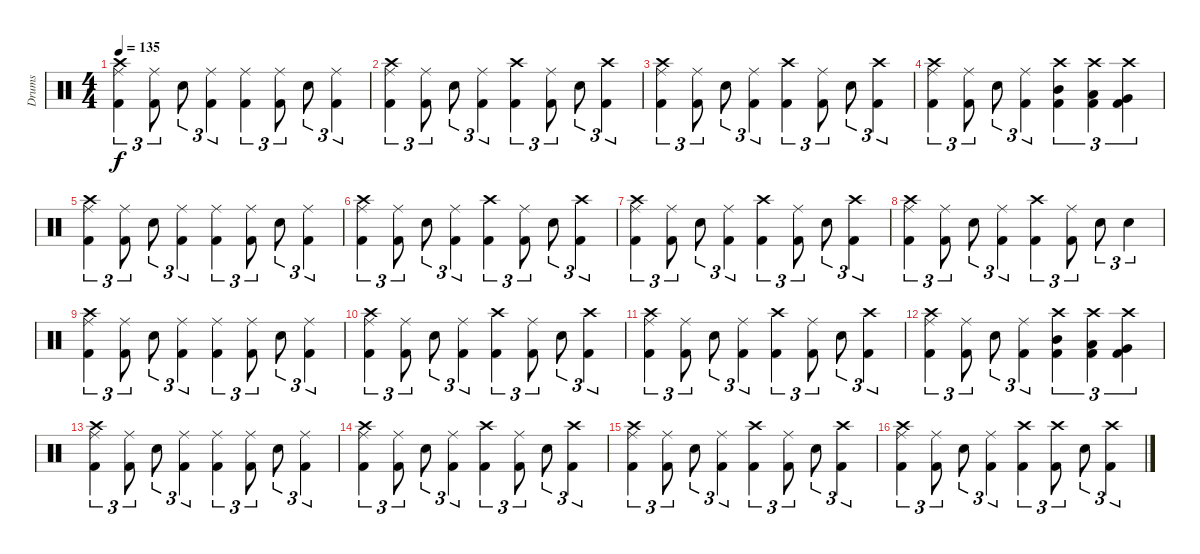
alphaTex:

\track ("Drums" "Drums") {instrument percussion}
\staff {score}
\articulation defaults
\ts (4 4)
\tempo 135
\clef neutral
\ks c
("Crash high (hit)" "Ride (middle)" "Kick (hit) 2").4{tu (3 2) dy f} ("Ride (middle)" "Kick (hit) 2").8{tu (3 2)} "Electric Snare (hit)".8{tu (3 2)} ("Ride (middle)" "Kick (hit) 2").4{tu (3 2)} ("Ride (middle)" "Kick (hit) 2").4{tu (3 2)} ("Ride (middle)" "Kick (hit) 2").8{tu (3 2)} "Electric Snare (hit)".8{tu (3 2)} ("Ride (middle)" "Kick (hit) 2").4{tu (3 2)} |
("Crash high (hit)" "Ride (middle)" "Kick (hit) 2").4{tu (3 2)} ("Ride (middle)" "Kick (hit) 2").8{tu (3 2)} "Electric Snare (hit)".8{tu (3 2)} ("Ride (middle)" "Kick (hit) 2").4{tu (3 2)} ("Crash high (hit)" "Kick (hit) 2").4{tu (3 2)} ("Ride (middle)" "Kick (hit) 2").8{tu (3 2)} "Electric Snare (hit)".8{tu (3 2)} ("Crash high (hit)" "Kick (hit) 2").4{tu (3 2)} |
("Crash high (hit)" "Ride (middle)" "Kick (hit) 2").4{tu (3 2)} ("Ride (middle)" "Kick (hit) 2").8{tu (3 2)} "Electric Snare (hit)".8{tu (3 2)} ("Ride (middle)" "Kick (hit) 2").4{tu (3 2)} ("Crash high (hit)" "Kick (hit) 2").4{tu (3 2)} ("Ride (middle)" "Kick (hit) 2").8{tu (3 2)} "Electric Snare (hit)".8{tu (3 2)} ("Crash high (hit)" "Kick (hit) 2").4{tu (3 2)} |
("Crash high (hit)" "Ride (middle)" "Kick (hit) 2").4{tu (3 2)} ("Ride (middle)" "Kick (hit) 2").8{tu (3 2)} "Electric Snare (hit)".8{tu (3 2)} ("Ride (middle)" "Kick (hit) 2").4{tu (3 2)} ("Crash high (hit)" "Mid Tom (hit)" "Kick (hit) 2").4{tu (3 2)} ("Crash high (hit)" "Low Tom (hit)" "Kick (hit) 2").4{tu (3 2)} ("Crash high (hit)" "Very Low Tom (hit)" "Kick (hit) 2").4{tu (3 2)} |
("Crash high (hit)" "Ride (middle)" "Kick (hit) 2").4{tu (3 2)} ("Ride (middle)" "Kick (hit) 2").8{tu (3 2)} "Electric Snare (hit)".8{tu (3 2)} ("Ride (middle)" "Kick (hit) 2").4{tu (3 2)} ("Ride (middle)" "Kick (hit) 2").4{tu (3 2)} ("Ride (middle)" "Kick (hit) 2").8{tu (3 2)} "Electric Snare (hit)".8{tu (3 2)} ("Ride (middle)" "Kick (hit) 2").4{tu (3 2)} |
("Crash high (hit)" "Ride (middle)" "Kick (hit) 2").4{tu (3 2)} ("Ride (middle)" "Kick (hit) 2").8{tu (3 2)} "Electric Snare (hit)".8{tu (3 2)} ("Ride (middle)" "Kick (hit) 2").4{tu (3 2)} ("Crash high (hit)" "Kick (hit) 2").4{tu (3 2)} ("Ride (middle)" "Kick (hit) 2").8{tu (3 2)} "Electric Snare (hit)".8{tu (3 2)} ("Crash high (hit)" "Kick (hit) 2").4{tu (3 2)} |
("Crash high (hit)" "Ride (middle)" "Kick (hit) 2").4{tu (3 2)} ("Ride (middle)" "Kick (hit) 2").8{tu (3 2)} "Electric Snare (hit)".8{tu (3 2)} ("Ride (middle)" "Kick (hit) 2").4{tu (3 2)} ("Crash high (hit)" "Kick (hit) 2").4{tu (3 2)} ("Ride (middle)" "Kick (hit) 2").8{tu (3 2)} "Electric Snare (hit)".8{tu (3 2)} ("Crash high (hit)" "Kick (hit) 2").4{tu (3 2)} |
("Crash high (hit)" "Ride (middle)" "Kick (hit) 2").4{tu (3 2)} ("Ride (middle)" "Kick (hit) 2").8{tu (3 2)} "Electric Snare (hit)".8{tu (3 2)} ("Ride (middle)" "Kick (hit) 2").4{tu (3 2)} ("Crash high (hit)" "Kick (hit) 2").4{tu (3 2)} ("Ride (middle)" "Kick (hit) 2").8{tu (3 2)} "Electric Snare (hit)".8{tu (3 2)} "Electric Snare (hit)".4{tu (3 2)} |
("Crash high (hit)" "Ride (middle)" "Kick (hit) 2").4{tu (3 2)} ("Ride (middle)" "Kick (hit) 2").8{tu (3 2)} "Electric Snare (hit)".8{tu (3 2)} ("Ride (middle)" "Kick (hit) 2").4{tu (3 2)} ("Ride (middle)" "Kick (hit) 2").4{tu (3 2)} ("Ride (middle)" "Kick (hit) 2").8{tu (3 2)} "Electric Snare (hit)".8{tu (3 2)} ("Ride (middle)" "Kick (hit) 2").4{tu (3 2)} |
("Crash high (hit)" "Ride (middle)" "Kick (hit) 2").4{tu (3 2)} ("Ride (middle)" "Kick (hit) 2").8{tu (3 2)} "Electric Snare (hit)".8{tu (3 2)} ("Ride (middle)" "Kick (hit) 2").4{tu (3 2)} ("Crash high (hit)" "Kick (hit) 2").4{tu (3 2)} ("Ride (middle)" "Kick (hit) 2").8{tu (3 2)} "Electric Snare (hit)".8{tu (3 2)} ("Crash high (hit)" "Kick (hit) 2").4{tu (3 2)} |
("Crash high (hit)" "Ride (middle)" "Kick (hit) 2").4{tu (3 2)} ("Ride (middle)" "Kick (hit) 2").8{tu (3 2)} "Electric Snare (hit)".8{tu (3 2)} ("Ride (middle)" "Kick (hit) 2").4{tu (3 2)} ("Crash high (hit)" "Kick (hit) 2").4{tu (3 2)} ("Ride (middle)" "Kick (hit) 2").8{tu (3 2)} "Electric Snare (hit)".8{tu (3 2)} ("Crash high (hit)" "Kick (hit) 2").4{tu (3 2)} |
("Crash high (hit)" "Ride (middle)" "Kick (hit) 2").4{tu (3 2)} ("Ride (middle)" "Kick (hit) 2").8{tu (3 2)} "Electric Snare (hit)".8{tu (3 2)} ("Ride (middle)" "Kick (hit) 2").4{tu (3 2)} ("Crash high (hit)" "Mid Tom (hit)" "Kick (hit) 2").4{tu (3 2)} ("Crash high (hit)" "Low Tom (hit)" "Kick (hit) 2").4{tu (3 2)} ("Crash high (hit)" "Very Low Tom (hit)" "Kick (hit) 2").4{tu (3 2)} |
("Crash high (hit)" "Ride (middle)" "Kick (hit) 2").4{tu (3 2)} ("Ride (middle)" "Kick (hit) 2").8{tu (3 2)} "Electric Snare (hit)".8{tu (3 2)} ("Ride (middle)" "Kick (hit) 2").4{tu (3 2)} ("Ride (middle)" "Kick (hit) 2").4{tu (3 2)} ("Ride (middle)" "Kick (hit) 2").8{tu (3 2)} "Electric Snare (hit)".8{tu (3 2)} ("Ride (middle)" "Kick (hit) 2").4{tu (3 2)} |
("Crash high (hit)" "Ride (middle)" "Kick (hit) 2").4{tu (3 2)} ("Ride (middle)" "Kick (hit) 2").8{tu (3 2)} "Electric Snare (hit)".8{tu (3 2)} ("Ride (middle)" "Kick (hit) 2").4{tu (3 2)} ("Crash high (hit)" "Kick (hit) 2").4{tu (3 2)} ("Ride (middle)" "Kick (hit) 2").8{tu (3 2)} "Electric Snare (hit)".8{tu (3 2)} ("Crash high (hit)" "Kick (hit) 2").4{tu (3 2)} |
("Crash high (hit)" "Ride (middle)" "Kick (hit) 2").4{tu (3 2)} ("Ride (middle)" "Kick (hit) 2").8{tu (3 2)} "Electric Snare (hit)".8{tu (3 2)} ("Ride (middle)" "Kick (hit) 2").4{tu (3 2)} ("Crash high (hit)" "Kick (hit) 2").4{tu (3 2)} ("Ride (middle)" "Kick (hit) 2").8{tu (3 2)} "Electric Snare (hit)".8{tu (3 2)} ("Crash high (hit)" "Kick (hit) 2").4{tu (3 2)} |
("Crash high (hit)" "Ride (middle)" "Kick (hit) 2").4{tu (3 2)} ("Ride (middle)" "Kick (hit) 2").8{tu (3 2)} "Electric Snare (hit)".8{tu (3 2)} ("Ride (middle)" "Kick (hit) 2").4{tu (3 2)} ("Crash high (hit)" "Kick (hit) 2").4{tu (3 2)} ("Crash high (hit)" "Kick (hit) 2").8{tu (3 2)} "Electric Snare (hit)".8{tu (3 2)} ("Crash high (hit)" "Kick (hit) 2").4{tu (3 2)}
